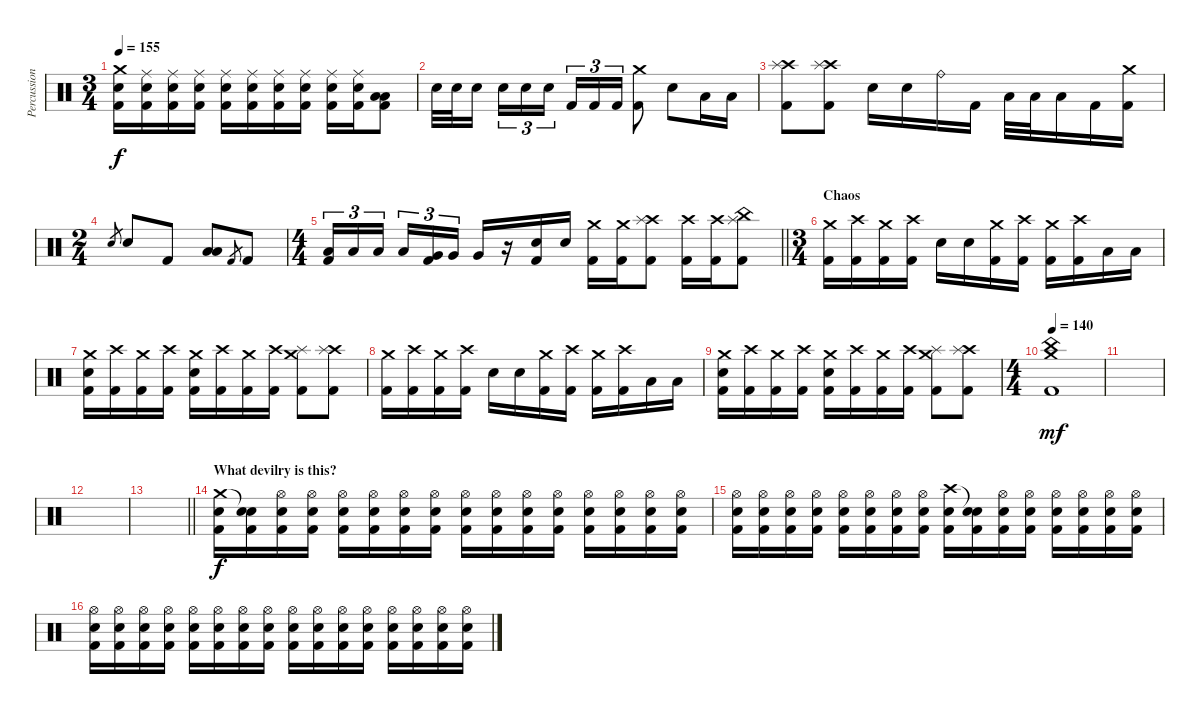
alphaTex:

\track ("Percussion" "Percussion") {instrument percussion}
\staff {score}
\articulation defaults
\ts (3 4)
\tempo 155
\clef neutral
\ks c
("Crash medium (hit)" "Electric Snare (hit)" "Kick (hit) 2").16{dy f} ("Ride (middle)" "Electric Snare (hit)" "Kick (hit) 2").16 ("Ride (middle)" "Electric Snare (hit)" "Kick (hit) 2").16 ("Ride (middle)" "Electric Snare (hit)" "Kick (hit) 2").16 ("Ride (middle)" "Electric Snare (hit)" "Kick (hit) 2").16 ("Ride (middle)" "Electric Snare (hit)" "Kick (hit) 2").16 ("Ride (middle)" "Electric Snare (hit)" "Kick (hit) 2").16 ("Ride (middle)" "Electric Snare (hit)" "Kick (hit) 2").16 ("Ride (middle)" "Electric Snare (hit)" "Kick (hit) 2").16 ("Ride (middle)" "Electric Snare (hit)" "Kick (hit) 2").16 ("Low Tom (hit)" "Low Floor Tom (hit)" "Kick (hit) 2").8 |
"Electric Snare (hit)".32 "Electric Snare (hit)".32 "Electric Snare (hit)".16 "Electric Snare (hit)".16{tu (3 2)} "Electric Snare (hit)".16{tu (3 2)} "Electric Snare (hit)".16{tu (3 2)} "Kick (hit) 2".16{tu (3 2)} "Kick (hit) 2".16{tu (3 2)} "Kick (hit) 2".16{tu (3 2)} ("Crash medium (hit)" "Kick (hit) 2").8 "Electric Snare (hit)".8 "Low Tom (hit)".16 "Low Tom (hit)".16 |
("Crash high (hit)" "Splash (hit)" "Kick (hit) 2").8 ("Crash high (hit)" "Splash (hit)" "Kick (hit) 2").8 "Electric Snare (hit)".16 "Electric Snare (hit)".16 "Ride (bell)".16 "Kick (hit) 2".16 "Low Tom (hit)".32 "Low Tom (hit)".32 "Low Tom (hit)".16 "Kick (hit) 2".16 ("Crash medium (hit)" "Kick (hit) 2").16 |
\ts (2 4)
"Electric Snare (hit)".8{gr} "Electric Snare (hit)".8 "Kick (hit) 2".8 ("Low Tom (hit)" "Low Floor Tom (hit)").8 "Kick (hit) 2".8{gr} "Kick (hit) 2".8 |
\ts (4 4)
\barLineRight lightlight
("Low Tom (hit)" "Kick (hit) 2").16{tu (3 2)} "Low Tom (hit)".16{tu (3 2)} "Low Tom (hit)".16{tu (3 2)} "Low Tom (hit)".16{tu (3 2)} ("Very Low Tom (hit)" "Kick (hit) 2").16{tu (3 2)} "Very Low Tom (hit)".16{tu (3 2)} "Very Low Tom (hit)".16 r.16 ("Electric Snare (hit)" "Kick (hit) 2").16 "Electric Snare (hit)".16 ("Crash medium (hit)" "Kick (hit) 2").16 ("Crash medium (hit)" "Kick (hit) 2").16 ("Crash high (hit)" "Splash (hit)" "Kick (hit) 2").8 ("Crash high (hit)" "Kick (hit) 2").16 ("Crash high (hit)" "Kick (hit) 2").16 ("China (hit)" "Splash (hit)" "Kick (hit) 2").8 |
\ts (3 4)
\section ("" "Chaos")
("Crash medium (hit)" "Kick (hit) 2").16 ("Crash high (hit)" "Kick (hit) 2").16 ("Crash medium (hit)" "Kick (hit) 2").16 ("Crash high (hit)" "Kick (hit) 2").16 "Electric Snare (hit)".16 "Electric Snare (hit)".16 ("Crash medium (hit)" "Kick (hit) 2").16 ("Crash high (hit)" "Kick (hit) 2").16 ("Crash medium (hit)" "Kick (hit) 2").16 ("Crash high (hit)" "Kick (hit) 2").16 "Low Tom (hit)".16 "Low Tom (hit)".16 |
("Crash medium (hit)" "Electric Snare (hit)" "Kick (hit) 2").16 ("Crash high (hit)" "Kick (hit) 2").16 ("Crash medium (hit)" "Kick (hit) 2").16 ("Crash high (hit)" "Kick (hit) 2").16 ("Crash medium (hit)" "Electric Snare (hit)" "Kick (hit) 2").16 ("Crash high (hit)" "Kick (hit) 2").16 ("Crash medium (hit)" "Kick (hit) 2").16 ("Crash high (hit)" "Kick (hit) 2").16 ("Crash medium (hit)" "Splash (hit)" "Kick (hit) 2").8 ("Crash high (hit)" "Splash (hit)" "Kick (hit) 2").8 |
("Crash medium (hit)" "Kick (hit) 2").16 ("Crash high (hit)" "Kick (hit) 2").16 ("Crash medium (hit)" "Kick (hit) 2").16 ("Crash high (hit)" "Kick (hit) 2").16 "Electric Snare (hit)".16 "Electric Snare (hit)".16 ("Crash medium (hit)" "Kick (hit) 2").16 ("Crash high (hit)" "Kick (hit) 2").16 ("Crash medium (hit)" "Kick (hit) 2").16 ("Crash high (hit)" "Kick (hit) 2").16 "Low Tom (hit)".16 "Low Tom (hit)".16 |
("Crash medium (hit)" "Electric Snare (hit)" "Kick (hit) 2").16 ("Crash high (hit)" "Kick (hit) 2").16 ("Crash medium (hit)" "Kick (hit) 2").16 ("Crash high (hit)" "Kick (hit) 2").16 ("Crash medium (hit)" "Electric Snare (hit)" "Kick (hit) 2").16 ("Crash high (hit)" "Kick (hit) 2").16 ("Crash medium (hit)" "Kick (hit) 2").16 ("Crash high (hit)" "Kick (hit) 2").16 ("Crash medium (hit)" "Splash (hit)" "Kick (hit) 2").8 ("Crash high (hit)" "Splash (hit)" "Kick (hit) 2").8 |
\ts (4 4)
\tempo 140
("Crash medium (hit)" "China (hit)" "Kick (hit) 2").1{dy mf} |
|
|
\barLineRight lightlight
|
\section ("" "What devilry is this?")
("Crash medium (hit)" "Electric Snare (hit)" "Kick (hit) 2").16{dy f} ("Snare (hit)"{t} "Electric Snare (hit)" "Kick (hit) 2").16 ("Hi-Hat (open)" "Electric Snare (hit)" "Kick (hit) 2").16 ("Hi-Hat (open)" "Electric Snare (hit)" "Kick (hit) 2").16 ("Hi-Hat (open)" "Electric Snare (hit)" "Kick (hit) 2").16 ("Hi-Hat (open)" "Electric Snare (hit)" "Kick (hit) 2").16 ("Hi-Hat (open)" "Electric Snare (hit)" "Kick (hit) 2").16 ("Hi-Hat (open)" "Electric Snare (hit)" "Kick (hit) 2").16 ("Hi-Hat (open)" "Electric Snare (hit)" "Kick (hit) 2").16 ("Hi-Hat (open)" "Electric Snare (hit)" "Kick (hit) 2").16 ("Hi-Hat (open)" "Electric Snare (hit)" "Kick (hit) 2").16 ("Hi-Hat (open)" "Electric Snare (hit)" "Kick (hit) 2").16 ("Hi-Hat (open)" "Electric Snare (hit)" "Kick (hit) 2").16 ("Hi-Hat (open)" "Electric Snare (hit)" "Kick (hit) 2").16 ("Hi-Hat (open)" "Electric Snare (hit)" "Kick (hit) 2").16 ("Hi-Hat (open)" "Electric Snare (hit)" "Kick (hit) 2").16 |
("Hi-Hat (open)" "Electric Snare (hit)" "Kick (hit) 2").16 ("Hi-Hat (open)" "Electric Snare (hit)" "Kick (hit) 2").16 ("Hi-Hat (open)" "Electric Snare (hit)" "Kick (hit) 2").16 ("Hi-Hat (open)" "Electric Snare (hit)" "Kick (hit) 2").16 ("Hi-Hat (open)" "Electric Snare (hit)" "Kick (hit) 2").16 ("Hi-Hat (open)" "Electric Snare (hit)" "Kick (hit) 2").16 ("Hi-Hat (open)" "Electric Snare (hit)" "Kick (hit) 2").16 ("Hi-Hat (open)" "Electric Snare (hit)" "Kick (hit) 2").16 ("Crash high (hit)" "Electric Snare (hit)" "Kick (hit) 2").16 ("Snare (hit)"{t} "Electric Snare (hit)" "Kick (hit) 2").16 ("Hi-Hat (open)" "Electric Snare (hit)" "Kick (hit) 2").16 ("Hi-Hat (open)" "Electric Snare (hit)" "Kick (hit) 2").16 ("Hi-Hat (open)" "Electric Snare (hit)" "Kick (hit) 2").16 ("Hi-Hat (open)" "Electric Snare (hit)" "Kick (hit) 2").16 ("Hi-Hat (open)" "Electric Snare (hit)" "Kick (hit) 2").16 ("Hi-Hat (open)" "Electric Snare (hit)" "Kick (hit) 2").16 |
("Hi-Hat (open)" "Electric Snare (hit)" "Kick (hit) 2").16 ("Hi-Hat (open)" "Electric Snare (hit)" "Kick (hit) 2").16 ("Hi-Hat (open)" "Electric Snare (hit)" "Kick (hit) 2").16 ("Hi-Hat (open)" "Electric Snare (hit)" "Kick (hit) 2").16 ("Hi-Hat (open)" "Electric Snare (hit)" "Kick (hit) 2").16 ("Hi-Hat (open)" "Electric Snare (hit)" "Kick (hit) 2").16 ("Hi-Hat (open)" "Electric Snare (hit)" "Kick (hit) 2").16 ("Hi-Hat (open)" "Electric Snare (hit)" "Kick (hit) 2").16 ("Hi-Hat (open)" "Electric Snare (hit)" "Kick (hit) 2").16 ("Hi-Hat (open)" "Electric Snare (hit)" "Kick (hit) 2").16 ("Hi-Hat (open)" "Electric Snare (hit)" "Kick (hit) 2").16 ("Hi-Hat (open)" "Electric Snare (hit)" "Kick (hit) 2").16 ("Hi-Hat (open)" "Electric Snare (hit)" "Kick (hit) 2").16 ("Hi-Hat (open)" "Electric Snare (hit)" "Kick (hit) 2").16 ("Hi-Hat (open)" "Electric Snare (hit)" "Kick (hit) 2").16 ("Hi-Hat (open)" "Electric Snare (hit)" "Kick (hit) 2").16
